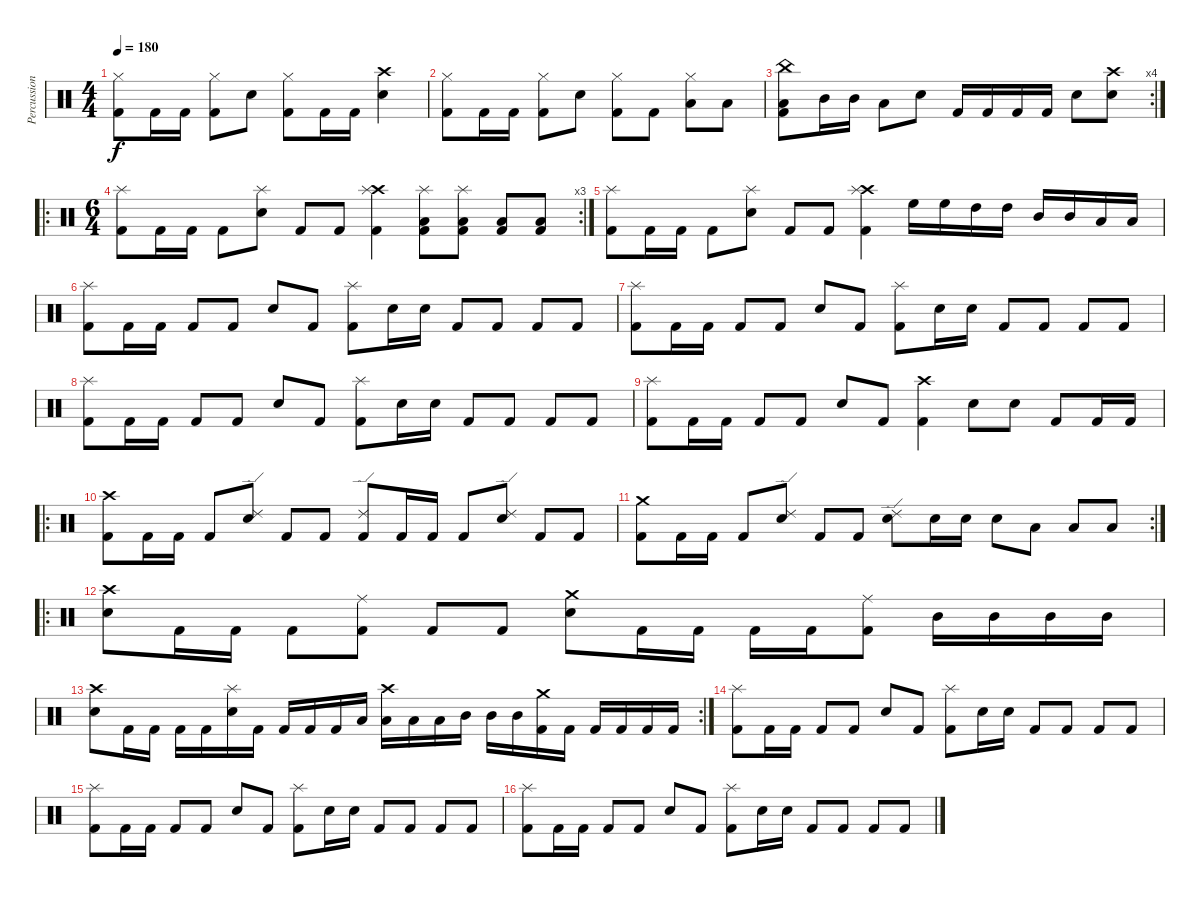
\track ("Percussion" "Percussion") {instrument percussion}
\staff {score}
\articulation defaults
\ts (4 4)
\tempo 180
\clef neutral
\ks c
("Hi-Hat (closed)" "Kick (hit) 2").8{dy f} "Kick (hit) 2".16 "Kick (hit) 2".16 ("Hi-Hat (closed)" "Kick (hit) 2").8 "Snare (hit) 2".8 ("Hi-Hat (closed)" "Kick (hit) 2").8 "Kick (hit) 2".16 "Kick (hit) 2".16 ("Crash high (hit)" "Snare (hit) 2").4 |
("Hi-Hat (closed)" "Kick (hit) 2").8 "Kick (hit) 2".16 "Kick (hit) 2".16 ("Hi-Hat (closed)" "Kick (hit) 2").8 "Snare (hit) 2".8 ("Hi-Hat (closed)" "Kick (hit) 2").8 "Kick (hit) 2".8 ("Hi-Hat (closed)" "Low Tom (hit)").8 "Low Tom (hit)".8 |
\rc 4
("China (hit)" "Low Tom (hit)" "Kick (hit) 2").8 "Mid Tom (hit)".16 "Mid Tom (hit)".16 "Low Tom (hit)".8 "Snare (hit) 2".8 "Kick (hit) 2".16 "Kick (hit) 2".16 "Kick (hit) 2".16 "Kick (hit) 2".16 "Snare (hit) 2".8 ("Crash high (hit)" "Snare (hit) 2").8 |
\ro
\rc 3
\ts (6 4)
("Splash (hit)" "Kick (hit) 2").8 "Kick (hit) 2".16 "Kick (hit) 2".16 "Kick (hit) 2".8 ("Splash (hit)" "Snare (hit) 2").8 "Kick (hit) 2".8 "Kick (hit) 2".8 ("Crash high (hit)" "Splash (hit)" "Kick (hit) 2").4 ("Splash (hit)" "Low Tom (hit)" "Kick (hit) 2").8 ("Splash (hit)" "Low Tom (hit)" "Kick (hit) 2").8 ("Low Tom (hit)" "Kick (hit) 2").8 ("Low Tom (hit)" "Kick (hit) 2").8 |
("Splash (hit)" "Kick (hit) 2").8 "Kick (hit) 2".16 "Kick (hit) 2".16 "Kick (hit) 2".8 ("Splash (hit)" "Snare (hit) 2").8 "Kick (hit) 2".8 "Kick (hit) 2".8 ("Crash high (hit)" "Splash (hit)" "Kick (hit) 2").4 "High Floor Tom (hit)".16 "High Floor Tom (hit)".16 "High Tom (hit)".16 "High Tom (hit)".16 "Mid Tom (hit)".16 "Mid Tom (hit)".16 "Low Tom (hit)".16 "Low Tom (hit)".16 |
("Splash (hit)" "Kick (hit) 2").8 "Kick (hit) 2".16 "Kick (hit) 2".16 "Kick (hit) 2".8 "Kick (hit) 2".8 "Snare (hit) 2".8 "Kick (hit) 2".8 ("Splash (hit)" "Kick (hit) 2").8 "Snare (hit) 2".16 "Snare (hit) 2".16 "Kick (hit) 2".8 "Kick (hit) 2".8 "Kick (hit) 2".8 "Kick (hit) 2".8 |
("Splash (hit)" "Kick (hit) 2").8 "Kick (hit) 2".16 "Kick (hit) 2".16 "Kick (hit) 2".8 "Kick (hit) 2".8 "Snare (hit) 2".8 "Kick (hit) 2".8 ("Splash (hit)" "Kick (hit) 2").8 "Snare (hit) 2".16 "Snare (hit) 2".16 "Kick (hit) 2".8 "Kick (hit) 2".8 "Kick (hit) 2".8 "Kick (hit) 2".8 |
("Splash (hit)" "Kick (hit) 2").8 "Kick (hit) 2".16 "Kick (hit) 2".16 "Kick (hit) 2".8 "Kick (hit) 2".8 "Snare (hit) 2".8 "Kick (hit) 2".8 ("Splash (hit)" "Kick (hit) 2").8 "Snare (hit) 2".16 "Snare (hit) 2".16 "Kick (hit) 2".8 "Kick (hit) 2".8 "Kick (hit) 2".8 "Kick (hit) 2".8 |
("Splash (hit)" "Kick (hit) 2").8 "Kick (hit) 2".16 "Kick (hit) 2".16 "Kick (hit) 2".8 "Kick (hit) 2".8 "Snare (hit) 2".8 "Kick (hit) 2".8 ("Crash high (hit)" "Kick (hit) 2").4 "Snare (hit) 2".8 "Snare (hit) 2".8 "Kick (hit) 2".8 "Kick (hit) 2".16 "Kick (hit) 2".16 |
\ro
("Crash high (hit)" "Kick (hit) 2").8 "Kick (hit) 2".16 "Kick (hit) 2".16 "Kick (hit) 2".8 ("Ride (edge) 2" "Snare (hit) 2").8 "Kick (hit) 2".8 "Kick (hit) 2".8 ("Ride (edge) 2" "Kick (hit) 2").8 "Kick (hit) 2".16 "Kick (hit) 2".16 "Kick (hit) 2".8 ("Ride (edge) 2" "Snare (hit) 2").8 "Kick (hit) 2".8 "Kick (hit) 2".8 |
\rc 2
("Crash medium (hit)" "Kick (hit) 2").8 "Kick (hit) 2".16 "Kick (hit) 2".16 "Kick (hit) 2".8 ("Ride (edge) 2" "Snare (hit) 2").8 "Kick (hit) 2".8 "Kick (hit) 2".8 ("Ride (edge) 2" "Snare (hit) 2").8 "Snare (hit) 2".16 "Snare (hit) 2".16 "Snare (hit) 2".8 "Low Tom (hit)".8 "Low Tom (hit)".8 "Low Tom (hit)".8 |
\ro
("Crash high (hit)" "Snare (hit) 2").8 "Kick (hit) 2".16 "Kick (hit) 2".16 "Kick (hit) 2".8 ("Ride (middle)" "Kick (hit) 2").8 "Kick (hit) 2".8 "Kick (hit) 2".8 ("Crash medium (hit)" "Snare (hit) 2").8 "Kick (hit) 2".16 "Kick (hit) 2".16 "Kick (hit) 2".16 "Kick (hit) 2".16 ("Ride (middle)" "Kick (hit) 2").8 "Mid Tom (hit)".16 "Mid Tom (hit)".16 "Mid Tom (hit)".16 "Mid Tom (hit)".16 |
\rc 2
("Crash high (hit)" "Snare (hit) 2").8 "Kick (hit) 2".16 "Kick (hit) 2".16 "Kick (hit) 2".16 "Kick (hit) 2".16 ("Splash (hit)" "Snare (hit) 2").16 "Kick (hit) 2".16 "Kick (hit) 2".16 "Kick (hit) 2".16 "Kick (hit) 2".16 "Low Tom (hit)".16 ("Crash high (hit)" "Low Tom (hit)").16 "Low Tom (hit)".16 "Low Tom (hit)".16 "Mid Tom (hit)".16 "Mid Tom (hit)".16 "Mid Tom (hit)".16 ("Crash medium (hit)" "Kick (hit) 2").16 "Kick (hit) 2".16 "Kick (hit) 2".16 "Kick (hit) 2".16 "Kick (hit) 2".16 "Kick (hit) 2".16 |
("Splash (hit)" "Kick (hit) 2").8 "Kick (hit) 2".16 "Kick (hit) 2".16 "Kick (hit) 2".8 "Kick (hit) 2".8 "Snare (hit) 2".8 "Kick (hit) 2".8 ("Splash (hit)" "Kick (hit) 2").8 "Snare (hit) 2".16 "Snare (hit) 2".16 "Kick (hit) 2".8 "Kick (hit) 2".8 "Kick (hit) 2".8 "Kick (hit) 2".8 |
("Splash (hit)" "Kick (hit) 2").8 "Kick (hit) 2".16 "Kick (hit) 2".16 "Kick (hit) 2".8 "Kick (hit) 2".8 "Snare (hit) 2".8 "Kick (hit) 2".8 ("Splash (hit)" "Kick (hit) 2").8 "Snare (hit) 2".16 "Snare (hit) 2".16 "Kick (hit) 2".8 "Kick (hit) 2".8 "Kick (hit) 2".8 "Kick (hit) 2".8 |
("Splash (hit)" "Kick (hit) 2").8 "Kick (hit) 2".16 "Kick (hit) 2".16 "Kick (hit) 2".8 "Kick (hit) 2".8 "Snare (hit) 2".8 "Kick (hit) 2".8 ("Splash (hit)" "Kick (hit) 2").8 "Snare (hit) 2".16 "Snare (hit) 2".16 "Kick (hit) 2".8 "Kick (hit) 2".8 "Kick (hit) 2".8 "Kick (hit) 2".8
